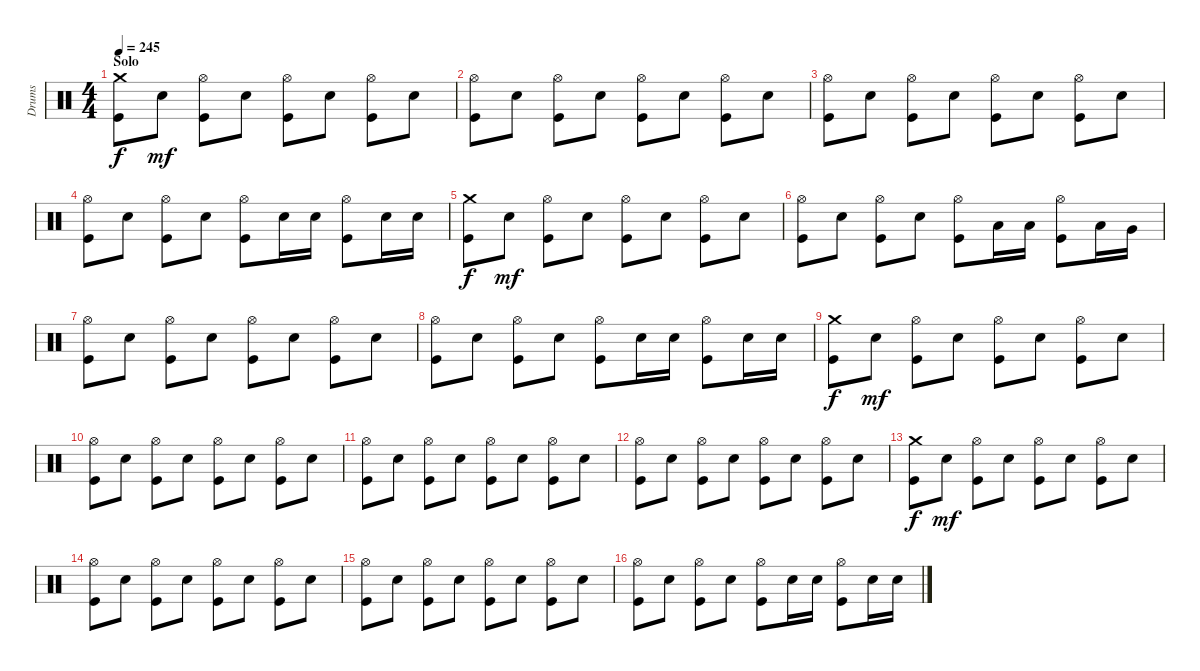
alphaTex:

\track ("Drums" "Drums") {instrument percussion}
\staff {score}
\articulation defaults
\ts (4 4)
\section ("" "Solo")
\tempo 245
\clef neutral
\ks c
("Crash medium (hit)" "Kick (hit)").8{dy f} "Snare (hit) 2".8{dy mf} ("Hi-Hat (open)" "Kick (hit)").8 "Snare (hit) 2".8 ("Hi-Hat (open)" "Kick (hit)").8 "Snare (hit) 2".8 ("Hi-Hat (open)" "Kick (hit)").8 "Snare (hit) 2".8 |
("Hi-Hat (open)" "Kick (hit)").8 "Snare (hit) 2".8 ("Hi-Hat (open)" "Kick (hit)").8 "Snare (hit) 2".8 ("Hi-Hat (open)" "Kick (hit)").8 "Snare (hit) 2".8 ("Hi-Hat (open)" "Kick (hit)").8 "Snare (hit) 2".8 |
("Hi-Hat (open)" "Kick (hit)").8 "Snare (hit) 2".8 ("Hi-Hat (open)" "Kick (hit)").8 "Snare (hit) 2".8 ("Hi-Hat (open)" "Kick (hit)").8 "Snare (hit) 2".8 ("Hi-Hat (open)" "Kick (hit)").8 "Snare (hit) 2".8 |
("Hi-Hat (open)" "Kick (hit)").8 "Snare (hit) 2".8 ("Hi-Hat (open)" "Kick (hit)").8 "Snare (hit) 2".8 ("Hi-Hat (open)" "Kick (hit)").8 "Snare (hit) 2".16 "Snare (hit) 2".16 ("Hi-Hat (open)" "Kick (hit)").8 "Snare (hit) 2".16 "Snare (hit) 2".16 |
("Crash medium (hit)" "Kick (hit)").8{dy f} "Snare (hit) 2".8{dy mf} ("Hi-Hat (open)" "Kick (hit)").8 "Snare (hit) 2".8 ("Hi-Hat (open)" "Kick (hit)").8 "Snare (hit) 2".8 ("Hi-Hat (open)" "Kick (hit)").8 "Snare (hit) 2".8 |
("Hi-Hat (open)" "Kick (hit)").8 "Snare (hit) 2".8 ("Hi-Hat (open)" "Kick (hit)").8 "Snare (hit) 2".8 ("Hi-Hat (open)" "Kick (hit)").8 "Low Tom (hit)".16 "Low Tom (hit)".16 ("Hi-Hat (open)" "Kick (hit)").8 "Low Tom (hit)".16 "Very Low Tom (hit)".16 |
("Hi-Hat (open)" "Kick (hit)").8 "Snare (hit) 2".8 ("Hi-Hat (open)" "Kick (hit)").8 "Snare (hit) 2".8 ("Hi-Hat (open)" "Kick (hit)").8 "Snare (hit) 2".8 ("Hi-Hat (open)" "Kick (hit)").8 "Snare (hit) 2".8 |
("Hi-Hat (open)" "Kick (hit)").8 "Snare (hit) 2".8 ("Hi-Hat (open)" "Kick (hit)").8 "Snare (hit) 2".8 ("Hi-Hat (open)" "Kick (hit)").8 "Snare (hit) 2".16 "Snare (hit) 2".16 ("Hi-Hat (open)" "Kick (hit)").8 "Snare (hit) 2".16 "Snare (hit) 2".16 |
("Crash medium (hit)" "Kick (hit)").8{dy f} "Snare (hit) 2".8{dy mf} ("Hi-Hat (open)" "Kick (hit)").8 "Snare (hit) 2".8 ("Hi-Hat (open)" "Kick (hit)").8 "Snare (hit) 2".8 ("Hi-Hat (open)" "Kick (hit)").8 "Snare (hit) 2".8 |
("Hi-Hat (open)" "Kick (hit)").8 "Snare (hit) 2".8 ("Hi-Hat (open)" "Kick (hit)").8 "Snare (hit) 2".8 ("Hi-Hat (open)" "Kick (hit)").8 "Snare (hit) 2".8 ("Hi-Hat (open)" "Kick (hit)").8 "Snare (hit) 2".8 |
("Hi-Hat (open)" "Kick (hit)").8 "Snare (hit) 2".8 ("Hi-Hat (open)" "Kick (hit)").8 "Snare (hit) 2".8 ("Hi-Hat (open)" "Kick (hit)").8 "Snare (hit) 2".8 ("Hi-Hat (open)" "Kick (hit)").8 "Snare (hit) 2".8 |
("Hi-Hat (open)" "Kick (hit)").8 "Snare (hit) 2".8 ("Hi-Hat (open)" "Kick (hit)").8 "Snare (hit) 2".8 ("Hi-Hat (open)" "Kick (hit)").8 "Snare (hit) 2".8 ("Hi-Hat (open)" "Kick (hit)").8 "Snare (hit) 2".8 |
("Crash medium (hit)" "Kick (hit)").8{dy f} "Snare (hit) 2".8{dy mf} ("Hi-Hat (open)" "Kick (hit)").8 "Snare (hit) 2".8 ("Hi-Hat (open)" "Kick (hit)").8 "Snare (hit) 2".8 ("Hi-Hat (open)" "Kick (hit)").8 "Snare (hit) 2".8 |
("Hi-Hat (open)" "Kick (hit)").8 "Snare (hit) 2".8 ("Hi-Hat (open)" "Kick (hit)").8 "Snare (hit) 2".8 ("Hi-Hat (open)" "Kick (hit)").8 "Snare (hit) 2".8 ("Hi-Hat (open)" "Kick (hit)").8 "Snare (hit) 2".8 |
("Hi-Hat (open)" "Kick (hit)").8 "Snare (hit) 2".8 ("Hi-Hat (open)" "Kick (hit)").8 "Snare (hit) 2".8 ("Hi-Hat (open)" "Kick (hit)").8 "Snare (hit) 2".8 ("Hi-Hat (open)" "Kick (hit)").8 "Snare (hit) 2".8 |
("Hi-Hat (open)" "Kick (hit)").8 "Snare (hit) 2".8 ("Hi-Hat (open)" "Kick (hit)").8 "Snare (hit) 2".8 ("Hi-Hat (open)" "Kick (hit)").8 "Snare (hit) 2".16 "Snare (hit) 2".16 ("Hi-Hat (open)" "Kick (hit)").8 "Snare (hit) 2".16 "Snare (hit) 2".16
